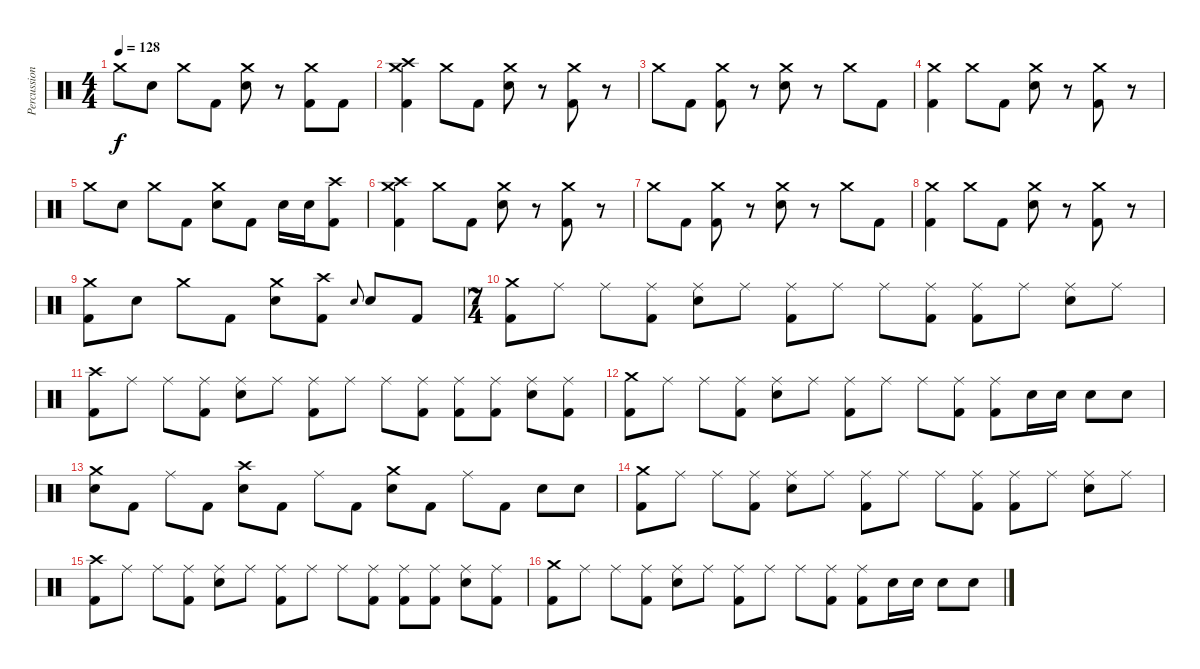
\track ("Percussion" "Percussion") {instrument percussion}
\staff {score}
\articulation defaults
\ts (4 4)
\tempo 128
\clef neutral
\ks c "Crash medium (hit)".8{dy f} "Snare (hit) 2".8 "Crash medium (hit)".8 "Kick (hit) 2".8
("Crash medium (hit)" "Snare (hit) 2").8 r.8 ("Crash medium (hit)" "Kick (hit) 2").8 "Kick (hit) 2".8 |
("Crash medium (hit)" "Crash high (hit)" "Kick (hit) 2").4 "Crash medium (hit)".8 "Kick (hit) 2".8 ("Crash medium (hit)" "Snare (hit) 2").8 r.8 ("Crash medium (hit)" "Kick (hit) 2").8 r.8 |
"Crash medium (hit)".8 "Kick (hit) 2".8 ("Crash medium (hit)" "Kick (hit) 2").8 r.8 ("Crash medium (hit)" "Snare (hit) 2").8 r.8 "Crash medium (hit)".8 "Kick (hit) 2".8 |
("Crash medium (hit)" "Kick (hit) 2").4 "Crash medium (hit)".8 "Kick (hit) 2".8 ("Crash medium (hit)" "Snare (hit) 2").8 r.8 ("Crash medium (hit)" "Kick (hit) 2").8 r.8 |
"Crash medium (hit)".8 "Snare (hit) 2".8 "Crash medium (hit)".8 "Kick (hit) 2".8 ("Crash medium (hit)" "Snare (hit) 2").8 "Kick (hit) 2".8 "Snare (hit) 2".16 "Snare (hit) 2".16 ("Crash high (hit)" "Kick (hit) 2").8 |
("Crash high (hit)" "Crash medium (hit)" "Kick (hit) 2").4 "Crash medium (hit)".8 "Kick (hit) 2".8 ("Crash medium (hit)" "Snare (hit) 2").8 r.8 ("Crash medium (hit)" "Kick (hit) 2").8 r.8 |
"Crash medium (hit)".8 "Kick (hit) 2".8 ("Crash medium (hit)" "Kick (hit) 2").8 r.8 ("Crash medium (hit)" "Snare (hit) 2").8 r.8 "Crash medium (hit)".8 "Kick (hit) 2".8 |
("Crash medium (hit)" "Kick (hit) 2").4 "Crash medium (hit)".8 "Kick (hit) 2".8 ("Crash medium (hit)" "Snare (hit) 2").8 r.8 ("Crash medium (hit)" "Kick (hit) 2").8 r.8 |
("Crash medium (hit)" "Kick (hit) 2").8 "Snare (hit) 2".8 "Crash medium (hit)".8 "Kick (hit) 2".8 ("Crash medium (hit)" "Snare (hit) 2").8 ("Crash high (hit)" "Kick (hit) 2").8 "Snare (hit) 2".8{gr onbeat} "Snare (hit) 2".8 "Kick (hit) 2".8 |
\ts (7 4)
("Crash medium (hit)" "Kick (hit) 2").8 "Ride (middle)".8 "Ride (middle)".8 ("Ride (middle)" "Kick (hit) 2").8 ("Ride (middle)" "Snare (hit) 2").8 "Ride (middle)".8 ("Ride (middle)" "Kick (hit) 2").8 "Ride (middle)".8 "Ride (middle)".8 ("Ride (middle)" "Kick (hit) 2").8 ("Ride (middle)" "Kick (hit) 2").8 "Ride (middle)".8 ("Ride (middle)" "Snare (hit) 2").8 "Ride (middle)".8 |
("Crash high (hit)" "Kick (hit) 2").8 "Ride (middle)".8 "Ride (middle)".8 ("Ride (middle)" "Kick (hit) 2").8 ("Ride (middle)" "Snare (hit) 2").8 "Ride (middle)".8 ("Ride (middle)" "Kick (hit) 2").8 "Ride (middle)".8 "Ride (middle)".8 ("Ride (middle)" "Kick (hit) 2").8 ("Ride (middle)" "Kick (hit) 2").8 ("Ride (middle)" "Kick (hit) 2").8 ("Ride (middle)" "Snare (hit) 2").8 ("Ride (middle)" "Kick (hit) 2").8 |
("Crash medium (hit)" "Kick (hit) 2").8 "Ride (middle)".8 "Ride (middle)".8 ("Ride (middle)" "Kick (hit) 2").8 ("Ride (middle)" "Snare (hit) 2").8 "Ride (middle)".8 ("Ride (middle)" "Kick (hit) 2").8 "Ride (middle)".8 "Ride (middle)".8 ("Ride (middle)" "Kick (hit) 2").8 ("Ride (middle)" "Kick (hit) 2").8 "Snare (hit) 2".16 "Snare (hit) 2".16 "Snare (hit) 2".8 "Snare (hit) 2".8 |
("Crash medium (hit)" "Snare (hit) 2").8 "Kick (hit) 2".8 "Ride (middle)".8 "Kick (hit) 2".8 ("Crash high (hit)" "Snare (hit) 2").8 "Kick (hit) 2".8 "Ride (middle)".8 "Kick (hit) 2".8 ("Crash medium (hit)" "Snare (hit) 2").8 "Kick (hit) 2".8 "Ride (middle)".8 "Kick (hit) 2".8 "Snare (hit) 2".8 "Snare (hit) 2".8 |
("Crash medium (hit)" "Kick (hit) 2").8 "Ride (middle)".8 "Ride (middle)".8 ("Ride (middle)" "Kick (hit) 2").8 ("Ride (middle)" "Snare (hit) 2").8 "Ride (middle)".8 ("Ride (middle)" "Kick (hit) 2").8 "Ride (middle)".8 "Ride (middle)".8 ("Ride (middle)" "Kick (hit) 2").8 ("Ride (middle)" "Kick (hit) 2").8 "Ride (middle)".8 ("Ride (middle)" "Snare (hit) 2").8 "Ride (middle)".8 |
("Crash high (hit)" "Kick (hit) 2").8 "Ride (middle)".8 "Ride (middle)".8 ("Ride (middle)" "Kick (hit) 2").8 ("Ride (middle)" "Snare (hit) 2").8 "Ride (middle)".8 ("Ride (middle)" "Kick (hit) 2").8 "Ride (middle)".8 "Ride (middle)".8 ("Ride (middle)" "Kick (hit) 2").8 ("Ride (middle)" "Kick (hit) 2").8 ("Ride (middle)" "Kick (hit) 2").8 ("Ride (middle)" "Snare (hit) 2").8 ("Ride (middle)" "Kick (hit) 2").8 |
("Crash medium (hit)" "Kick (hit) 2").8 "Ride (middle)".8 "Ride (middle)".8 ("Ride (middle)" "Kick (hit) 2").8 ("Ride (middle)" "Snare (hit) 2").8 "Ride (middle)".8 ("Ride (middle)" "Kick (hit) 2").8 "Ride (middle)".8 "Ride (middle)".8 ("Ride (middle)" "Kick (hit) 2").8 ("Ride (middle)" "Kick (hit) 2").8 "Snare (hit) 2".16 "Snare (hit) 2".16 "Snare (hit) 2".8 "Snare (hit) 2".8
